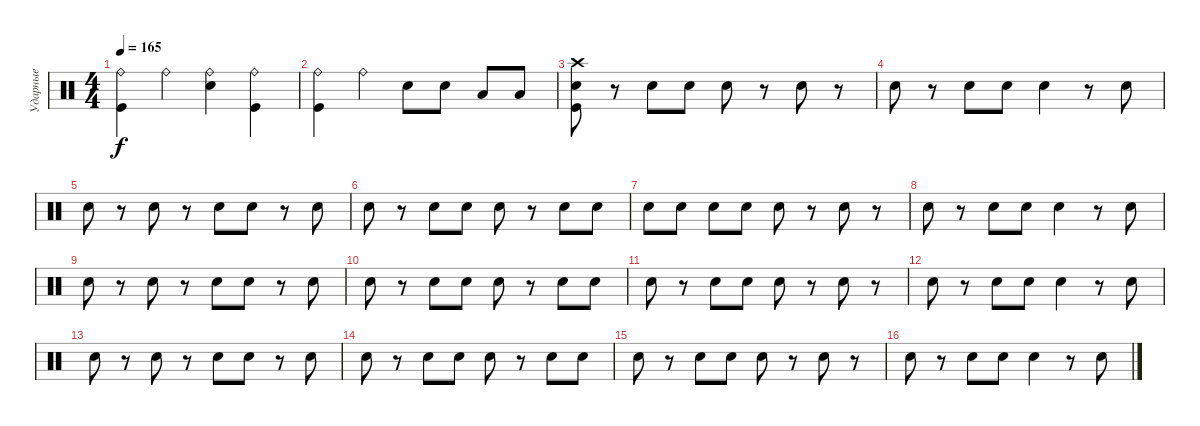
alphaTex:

\track ("Ударные" "Ударные") {instrument percussion}
\staff {score}
\articulation defaults
\ts (4 4)
\tempo 165
\clef neutral
\ks c
("Ride (bell)" "Kick (hit)").4{dy f} "Ride (bell)".4 ("Ride (bell)" "Electric Snare (hit)").4 ("Ride (bell)" "Kick (hit)").4 |
("Ride (bell)" "Kick (hit)").4 "Ride (bell)".4 "Electric Snare (hit)".8 "Electric Snare (hit)".8 "Low Tom (hit)".8 "Low Tom (hit)".8 |
("Crash high (hit)" "Electric Snare (hit)" "Kick (hit)").8 r.8 "Electric Snare (hit)".8 "Electric Snare (hit)".8 "Electric Snare (hit)".8 r.8 "Electric Snare (hit)".8 r.8 |
"Electric Snare (hit)".8 r.8 "Electric Snare (hit)".8 "Electric Snare (hit)".8 "Electric Snare (hit)".4 r.8 "Electric Snare (hit)".8 |
"Electric Snare (hit)".8 r.8 "Electric Snare (hit)".8 r.8 "Electric Snare (hit)".8 "Electric Snare (hit)".8 r.8 "Electric Snare (hit)".8 |
"Electric Snare (hit)".8 r.8 "Electric Snare (hit)".8 "Electric Snare (hit)".8 "Electric Snare (hit)".8 r.8 "Electric Snare (hit)".8 "Electric Snare (hit)".8 |
"Electric Snare (hit)".8 "Electric Snare (hit)".8 "Electric Snare (hit)".8 "Electric Snare (hit)".8 "Electric Snare (hit)".8 r.8 "Electric Snare (hit)".8 r.8 |
"Electric Snare (hit)".8 r.8 "Electric Snare (hit)".8 "Electric Snare (hit)".8 "Electric Snare (hit)".4 r.8 "Electric Snare (hit)".8 |
"Electric Snare (hit)".8 r.8 "Electric Snare (hit)".8 r.8 "Electric Snare (hit)".8 "Electric Snare (hit)".8 r.8 "Electric Snare (hit)".8 |
"Electric Snare (hit)".8 r.8 "Electric Snare (hit)".8 "Electric Snare (hit)".8 "Electric Snare (hit)".8 r.8 "Electric Snare (hit)".8 "Electric Snare (hit)".8 |
"Electric Snare (hit)".8 r.8 "Electric Snare (hit)".8 "Electric Snare (hit)".8 "Electric Snare (hit)".8 r.8 "Electric Snare (hit)".8 r.8 |
"Electric Snare (hit)".8 r.8 "Electric Snare (hit)".8 "Electric Snare (hit)".8 "Electric Snare (hit)".4 r.8 "Electric Snare (hit)".8 |
"Electric Snare (hit)".8 r.8 "Electric Snare (hit)".8 r.8 "Electric Snare (hit)".8 "Electric Snare (hit)".8 r.8 "Electric Snare (hit)".8 |
"Electric Snare (hit)".8 r.8 "Electric Snare (hit)".8 "Electric Snare (hit)".8 "Electric Snare (hit)".8 r.8 "Electric Snare (hit)".8 "Electric Snare (hit)".8 |
"Electric Snare (hit)".8 r.8 "Electric Snare (hit)".8 "Electric Snare (hit)".8 "Electric Snare (hit)".8 r.8 "Electric Snare (hit)".8 r.8 |
"Electric Snare (hit)".8 r.8 "Electric Snare (hit)".8 "Electric Snare (hit)".8 "Electric Snare (hit)".4 r.8 "Electric Snare (hit)".8
